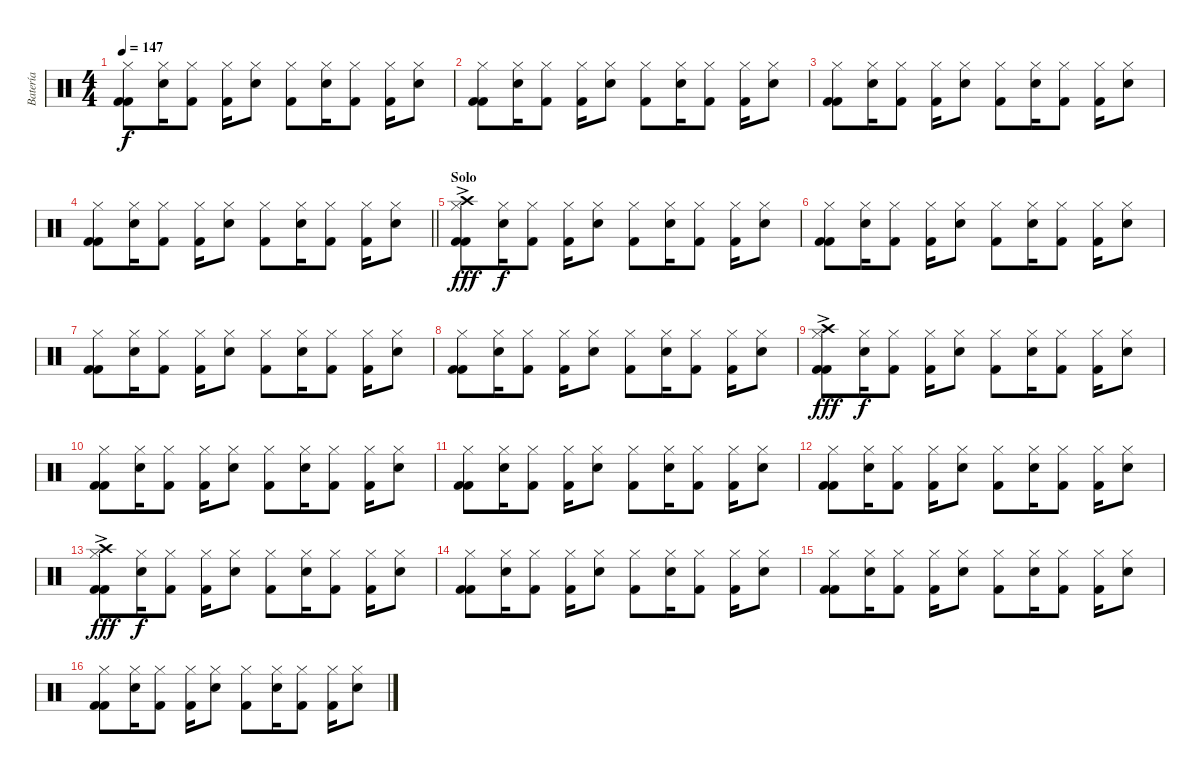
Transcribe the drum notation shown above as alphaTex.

\track ("Batería" "Batería") {instrument percussion}
\staff {score}
\articulation defaults
\ts (4 4)
\tempo 147
\clef neutral
\ks c
("Hi-Hat (closed)" "Kick (hit) 2" "Kick (hit) 2").8{dy f} ("Hi-Hat (closed)" "Electric Snare (hit)").16 ("Hi-Hat (closed)" "Kick (hit) 2").8 ("Hi-Hat (closed)" "Kick (hit) 2").16 ("Hi-Hat (closed)" "Electric Snare (hit)").8 ("Hi-Hat (closed)" "Kick (hit) 2").8 ("Hi-Hat (closed)" "Electric Snare (hit)").16 ("Hi-Hat (closed)" "Kick (hit) 2").8 ("Hi-Hat (closed)" "Kick (hit) 2").16 ("Hi-Hat (closed)" "Electric Snare (hit)").8 |
("Hi-Hat (closed)" "Kick (hit) 2" "Kick (hit) 2").8 ("Hi-Hat (closed)" "Electric Snare (hit)").16 ("Hi-Hat (closed)" "Kick (hit) 2").8 ("Hi-Hat (closed)" "Kick (hit) 2").16 ("Hi-Hat (closed)" "Electric Snare (hit)").8 ("Hi-Hat (closed)" "Kick (hit) 2").8 ("Hi-Hat (closed)" "Electric Snare (hit)").16 ("Hi-Hat (closed)" "Kick (hit) 2").8 ("Hi-Hat (closed)" "Kick (hit) 2").16 ("Hi-Hat (closed)" "Electric Snare (hit)").8 |
("Hi-Hat (closed)" "Kick (hit) 2" "Kick (hit) 2").8 ("Hi-Hat (closed)" "Electric Snare (hit)").16 ("Hi-Hat (closed)" "Kick (hit) 2").8 ("Hi-Hat (closed)" "Kick (hit) 2").16 ("Hi-Hat (closed)" "Electric Snare (hit)").8 ("Hi-Hat (closed)" "Kick (hit) 2").8 ("Hi-Hat (closed)" "Electric Snare (hit)").16 ("Hi-Hat (closed)" "Kick (hit) 2").8 ("Hi-Hat (closed)" "Kick (hit) 2").16 ("Hi-Hat (closed)" "Electric Snare (hit)").8 |
\barLineRight lightlight
("Hi-Hat (closed)" "Kick (hit) 2" "Kick (hit) 2").8 ("Hi-Hat (closed)" "Electric Snare (hit)").16 ("Hi-Hat (closed)" "Kick (hit) 2").8 ("Hi-Hat (closed)" "Kick (hit) 2").16 ("Hi-Hat (closed)" "Electric Snare (hit)").8 ("Hi-Hat (closed)" "Kick (hit) 2").8 ("Hi-Hat (closed)" "Electric Snare (hit)").16 ("Hi-Hat (closed)" "Kick (hit) 2").8 ("Hi-Hat (closed)" "Kick (hit) 2").16 ("Hi-Hat (closed)" "Electric Snare (hit)").8 |
\section ("" "Solo")
("Crash high (hit)"{ac} "Hi-Hat (closed)" "Kick (hit) 2" "Kick (hit) 2").8{dy fff} ("Hi-Hat (closed)" "Electric Snare (hit)").16{dy f} ("Hi-Hat (closed)" "Kick (hit) 2").8 ("Hi-Hat (closed)" "Kick (hit) 2").16 ("Hi-Hat (closed)" "Electric Snare (hit)").8 ("Hi-Hat (closed)" "Kick (hit) 2").8 ("Hi-Hat (closed)" "Electric Snare (hit)").16 ("Hi-Hat (closed)" "Kick (hit) 2").8 ("Hi-Hat (closed)" "Kick (hit) 2").16 ("Hi-Hat (closed)" "Electric Snare (hit)").8 |
("Hi-Hat (closed)" "Kick (hit) 2" "Kick (hit) 2").8 ("Hi-Hat (closed)" "Electric Snare (hit)").16 ("Hi-Hat (closed)" "Kick (hit) 2").8 ("Hi-Hat (closed)" "Kick (hit) 2").16 ("Hi-Hat (closed)" "Electric Snare (hit)").8 ("Hi-Hat (closed)" "Kick (hit) 2").8 ("Hi-Hat (closed)" "Electric Snare (hit)").16 ("Hi-Hat (closed)" "Kick (hit) 2").8 ("Hi-Hat (closed)" "Kick (hit) 2").16 ("Hi-Hat (closed)" "Electric Snare (hit)").8 |
("Hi-Hat (closed)" "Kick (hit) 2" "Kick (hit) 2").8 ("Hi-Hat (closed)" "Electric Snare (hit)").16 ("Hi-Hat (closed)" "Kick (hit) 2").8 ("Hi-Hat (closed)" "Kick (hit) 2").16 ("Hi-Hat (closed)" "Electric Snare (hit)").8 ("Hi-Hat (closed)" "Kick (hit) 2").8 ("Hi-Hat (closed)" "Electric Snare (hit)").16 ("Hi-Hat (closed)" "Kick (hit) 2").8 ("Hi-Hat (closed)" "Kick (hit) 2").16 ("Hi-Hat (closed)" "Electric Snare (hit)").8 |
("Hi-Hat (closed)" "Kick (hit) 2" "Kick (hit) 2").8 ("Hi-Hat (closed)" "Electric Snare (hit)").16 ("Hi-Hat (closed)" "Kick (hit) 2").8 ("Hi-Hat (closed)" "Kick (hit) 2").16 ("Hi-Hat (closed)" "Electric Snare (hit)").8 ("Hi-Hat (closed)" "Kick (hit) 2").8 ("Hi-Hat (closed)" "Electric Snare (hit)").16 ("Hi-Hat (closed)" "Kick (hit) 2").8 ("Hi-Hat (closed)" "Kick (hit) 2").16 ("Hi-Hat (closed)" "Electric Snare (hit)").8 |
("Crash high (hit)"{ac} "Hi-Hat (closed)" "Kick (hit) 2" "Kick (hit) 2").8{dy fff} ("Hi-Hat (closed)" "Electric Snare (hit)").16{dy f} ("Hi-Hat (closed)" "Kick (hit) 2").8 ("Hi-Hat (closed)" "Kick (hit) 2").16 ("Hi-Hat (closed)" "Electric Snare (hit)").8 ("Hi-Hat (closed)" "Kick (hit) 2").8 ("Hi-Hat (closed)" "Electric Snare (hit)").16 ("Hi-Hat (closed)" "Kick (hit) 2").8 ("Hi-Hat (closed)" "Kick (hit) 2").16 ("Hi-Hat (closed)" "Electric Snare (hit)").8 |
("Hi-Hat (closed)" "Kick (hit) 2" "Kick (hit) 2").8 ("Hi-Hat (closed)" "Electric Snare (hit)").16 ("Hi-Hat (closed)" "Kick (hit) 2").8 ("Hi-Hat (closed)" "Kick (hit) 2").16 ("Hi-Hat (closed)" "Electric Snare (hit)").8 ("Hi-Hat (closed)" "Kick (hit) 2").8 ("Hi-Hat (closed)" "Electric Snare (hit)").16 ("Hi-Hat (closed)" "Kick (hit) 2").8 ("Hi-Hat (closed)" "Kick (hit) 2").16 ("Hi-Hat (closed)" "Electric Snare (hit)").8 |
("Hi-Hat (closed)" "Kick (hit) 2" "Kick (hit) 2").8 ("Hi-Hat (closed)" "Electric Snare (hit)").16 ("Hi-Hat (closed)" "Kick (hit) 2").8 ("Hi-Hat (closed)" "Kick (hit) 2").16 ("Hi-Hat (closed)" "Electric Snare (hit)").8 ("Hi-Hat (closed)" "Kick (hit) 2").8 ("Hi-Hat (closed)" "Electric Snare (hit)").16 ("Hi-Hat (closed)" "Kick (hit) 2").8 ("Hi-Hat (closed)" "Kick (hit) 2").16 ("Hi-Hat (closed)" "Electric Snare (hit)").8 |
("Hi-Hat (closed)" "Kick (hit) 2" "Kick (hit) 2").8 ("Hi-Hat (closed)" "Electric Snare (hit)").16 ("Hi-Hat (closed)" "Kick (hit) 2").8 ("Hi-Hat (closed)" "Kick (hit) 2").16 ("Hi-Hat (closed)" "Electric Snare (hit)").8 ("Hi-Hat (closed)" "Kick (hit) 2").8 ("Hi-Hat (closed)" "Electric Snare (hit)").16 ("Hi-Hat (closed)" "Kick (hit) 2").8 ("Hi-Hat (closed)" "Kick (hit) 2").16 ("Hi-Hat (closed)" "Electric Snare (hit)").8 |
("Crash high (hit)"{ac} "Hi-Hat (closed)" "Kick (hit) 2" "Kick (hit) 2").8{dy fff} ("Hi-Hat (closed)" "Electric Snare (hit)").16{dy f} ("Hi-Hat (closed)" "Kick (hit) 2").8 ("Hi-Hat (closed)" "Kick (hit) 2").16 ("Hi-Hat (closed)" "Electric Snare (hit)").8 ("Hi-Hat (closed)" "Kick (hit) 2").8 ("Hi-Hat (closed)" "Electric Snare (hit)").16 ("Hi-Hat (closed)" "Kick (hit) 2").8 ("Hi-Hat (closed)" "Kick (hit) 2").16 ("Hi-Hat (closed)" "Electric Snare (hit)").8 |
("Hi-Hat (closed)" "Kick (hit) 2" "Kick (hit) 2").8 ("Hi-Hat (closed)" "Electric Snare (hit)").16 ("Hi-Hat (closed)" "Kick (hit) 2").8 ("Hi-Hat (closed)" "Kick (hit) 2").16 ("Hi-Hat (closed)" "Electric Snare (hit)").8 ("Hi-Hat (closed)" "Kick (hit) 2").8 ("Hi-Hat (closed)" "Electric Snare (hit)").16 ("Hi-Hat (closed)" "Kick (hit) 2").8 ("Hi-Hat (closed)" "Kick (hit) 2").16 ("Hi-Hat (closed)" "Electric Snare (hit)").8 |
("Hi-Hat (closed)" "Kick (hit) 2" "Kick (hit) 2").8 ("Hi-Hat (closed)" "Electric Snare (hit)").16 ("Hi-Hat (closed)" "Kick (hit) 2").8 ("Hi-Hat (closed)" "Kick (hit) 2").16 ("Hi-Hat (closed)" "Electric Snare (hit)").8 ("Hi-Hat (closed)" "Kick (hit) 2").8 ("Hi-Hat (closed)" "Electric Snare (hit)").16 ("Hi-Hat (closed)" "Kick (hit) 2").8 ("Hi-Hat (closed)" "Kick (hit) 2").16 ("Hi-Hat (closed)" "Electric Snare (hit)").8 |
("Hi-Hat (closed)" "Kick (hit) 2" "Kick (hit) 2").8 ("Hi-Hat (closed)" "Electric Snare (hit)").16 ("Hi-Hat (closed)" "Kick (hit) 2").8 ("Hi-Hat (closed)" "Kick (hit) 2").16 ("Hi-Hat (closed)" "Electric Snare (hit)").8 ("Hi-Hat (closed)" "Kick (hit) 2").8 ("Hi-Hat (closed)" "Electric Snare (hit)").16 ("Hi-Hat (closed)" "Kick (hit) 2").8 ("Hi-Hat (closed)" "Kick (hit) 2").16 ("Hi-Hat (closed)" "Electric Snare (hit)").8
